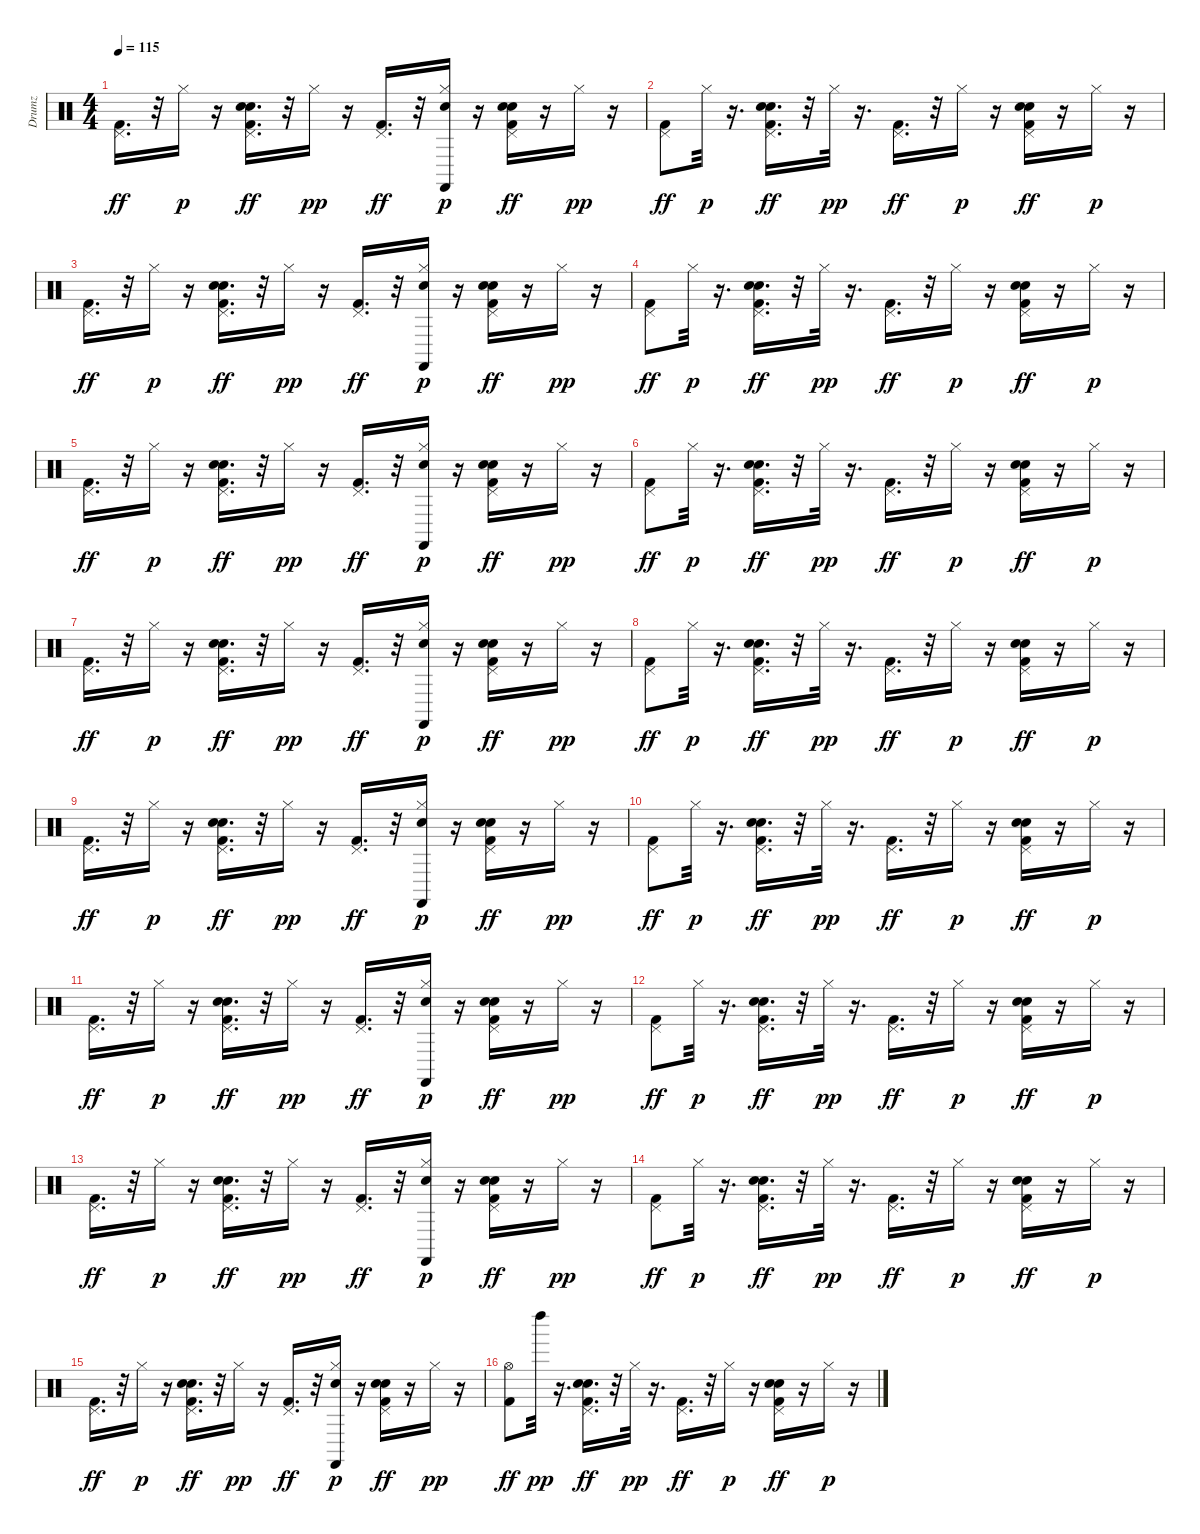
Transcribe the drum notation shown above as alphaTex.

\track ("Drumz" "Drumz") {instrument percussion}
\staff {score}
\articulation defaults
\ts (4 4)
\tempo 115
\clef neutral
\ks c
("Kick (hit) 2" "Pedal Hi-Hat (hit)").16{d dy ff} r.32 "Hi-Hat (closed)".16{dy p} r.16 ("Kick (hit) 2" "Pedal Hi-Hat (hit)" "Hand Clap (hit)" "Electric Snare (hit)").16{d dy ff} r.32 "Hi-Hat (closed)".16{dy pp} r.16 ("Pedal Hi-Hat (hit)" "Kick (hit) 2").16{d dy ff} r.32 ("Hi-Hat (closed)" "Castanets (hit)" "Hand Clap (hit)").16{dy p} r.16 ("Pedal Hi-Hat (hit)" "Kick (hit) 2" "Hand Clap (hit)" "Electric Snare (hit)").16{dy ff} r.16 "Hi-Hat (closed)".16{dy pp} r.16 |
("Pedal Hi-Hat (hit)" "Kick (hit) 2").8{dy ff} "Hi-Hat (closed)".32{dy p} r.16{d} ("Pedal Hi-Hat (hit)" "Kick (hit) 2" "Hand Clap (hit)" "Electric Snare (hit)").16{d dy ff} r.32 "Hi-Hat (closed)".32{dy pp} r.16{d} ("Pedal Hi-Hat (hit)" "Kick (hit) 2").16{d dy ff} r.32 "Hi-Hat (closed)".16{dy p} r.16 ("Pedal Hi-Hat (hit)" "Kick (hit) 2" "Electric Snare (hit)" "Hand Clap (hit)").16{dy ff} r.16 "Hi-Hat (closed)".16{dy p} r.16 |
("Kick (hit) 2" "Pedal Hi-Hat (hit)").16{d dy ff} r.32 "Hi-Hat (closed)".16{dy p} r.16 ("Kick (hit) 2" "Pedal Hi-Hat (hit)" "Hand Clap (hit)" "Electric Snare (hit)").16{d dy ff} r.32 "Hi-Hat (closed)".16{dy pp} r.16 ("Pedal Hi-Hat (hit)" "Kick (hit) 2").16{d dy ff} r.32 ("Hi-Hat (closed)" "Castanets (hit)" "Hand Clap (hit)").16{dy p} r.16 ("Pedal Hi-Hat (hit)" "Kick (hit) 2" "Hand Clap (hit)" "Electric Snare (hit)").16{dy ff} r.16 "Hi-Hat (closed)".16{dy pp} r.16 |
("Pedal Hi-Hat (hit)" "Kick (hit) 2").8{dy ff} "Hi-Hat (closed)".32{dy p} r.16{d} ("Pedal Hi-Hat (hit)" "Kick (hit) 2" "Hand Clap (hit)" "Electric Snare (hit)").16{d dy ff} r.32 "Hi-Hat (closed)".32{dy pp} r.16{d} ("Pedal Hi-Hat (hit)" "Kick (hit) 2").16{d dy ff} r.32 "Hi-Hat (closed)".16{dy p} r.16 ("Pedal Hi-Hat (hit)" "Kick (hit) 2" "Electric Snare (hit)" "Hand Clap (hit)").16{dy ff} r.16 "Hi-Hat (closed)".16{dy p} r.16 |
("Kick (hit) 2" "Pedal Hi-Hat (hit)").16{d dy ff} r.32 "Hi-Hat (closed)".16{dy p} r.16 ("Kick (hit) 2" "Pedal Hi-Hat (hit)" "Hand Clap (hit)" "Electric Snare (hit)").16{d dy ff} r.32 "Hi-Hat (closed)".16{dy pp} r.16 ("Pedal Hi-Hat (hit)" "Kick (hit) 2").16{d dy ff} r.32 ("Hi-Hat (closed)" "Castanets (hit)" "Hand Clap (hit)").16{dy p} r.16 ("Pedal Hi-Hat (hit)" "Kick (hit) 2" "Hand Clap (hit)" "Electric Snare (hit)").16{dy ff} r.16 "Hi-Hat (closed)".16{dy pp} r.16 |
("Pedal Hi-Hat (hit)" "Kick (hit) 2").8{dy ff} "Hi-Hat (closed)".32{dy p} r.16{d} ("Pedal Hi-Hat (hit)" "Kick (hit) 2" "Hand Clap (hit)" "Electric Snare (hit)").16{d dy ff} r.32 "Hi-Hat (closed)".32{dy pp} r.16{d} ("Pedal Hi-Hat (hit)" "Kick (hit) 2").16{d dy ff} r.32 "Hi-Hat (closed)".16{dy p} r.16 ("Pedal Hi-Hat (hit)" "Kick (hit) 2" "Electric Snare (hit)" "Hand Clap (hit)").16{dy ff} r.16 "Hi-Hat (closed)".16{dy p} r.16 |
("Kick (hit) 2" "Pedal Hi-Hat (hit)").16{d dy ff} r.32 "Hi-Hat (closed)".16{dy p} r.16 ("Kick (hit) 2" "Pedal Hi-Hat (hit)" "Hand Clap (hit)" "Electric Snare (hit)").16{d dy ff} r.32 "Hi-Hat (closed)".16{dy pp} r.16 ("Pedal Hi-Hat (hit)" "Kick (hit) 2").16{d dy ff} r.32 ("Hi-Hat (closed)" "Castanets (hit)" "Hand Clap (hit)").16{dy p} r.16 ("Pedal Hi-Hat (hit)" "Kick (hit) 2" "Hand Clap (hit)" "Electric Snare (hit)").16{dy ff} r.16 "Hi-Hat (closed)".16{dy pp} r.16 |
("Pedal Hi-Hat (hit)" "Kick (hit) 2").8{dy ff} "Hi-Hat (closed)".32{dy p} r.16{d} ("Pedal Hi-Hat (hit)" "Kick (hit) 2" "Hand Clap (hit)" "Electric Snare (hit)").16{d dy ff} r.32 "Hi-Hat (closed)".32{dy pp} r.16{d} ("Pedal Hi-Hat (hit)" "Kick (hit) 2").16{d dy ff} r.32 "Hi-Hat (closed)".16{dy p} r.16 ("Pedal Hi-Hat (hit)" "Kick (hit) 2" "Electric Snare (hit)" "Hand Clap (hit)").16{dy ff} r.16 "Hi-Hat (closed)".16{dy p} r.16 |
("Kick (hit) 2" "Pedal Hi-Hat (hit)").16{d dy ff} r.32 "Hi-Hat (closed)".16{dy p} r.16 ("Kick (hit) 2" "Pedal Hi-Hat (hit)" "Hand Clap (hit)" "Electric Snare (hit)").16{d dy ff} r.32 "Hi-Hat (closed)".16{dy pp} r.16 ("Pedal Hi-Hat (hit)" "Kick (hit) 2").16{d dy ff} r.32 ("Hi-Hat (closed)" "Castanets (hit)" "Hand Clap (hit)").16{dy p} r.16 ("Pedal Hi-Hat (hit)" "Kick (hit) 2" "Hand Clap (hit)" "Electric Snare (hit)").16{dy ff} r.16 "Hi-Hat (closed)".16{dy pp} r.16 |
("Pedal Hi-Hat (hit)" "Kick (hit) 2").8{dy ff} "Hi-Hat (closed)".32{dy p} r.16{d} ("Pedal Hi-Hat (hit)" "Kick (hit) 2" "Hand Clap (hit)" "Electric Snare (hit)").16{d dy ff} r.32 "Hi-Hat (closed)".32{dy pp} r.16{d} ("Pedal Hi-Hat (hit)" "Kick (hit) 2").16{d dy ff} r.32 "Hi-Hat (closed)".16{dy p} r.16 ("Pedal Hi-Hat (hit)" "Kick (hit) 2" "Electric Snare (hit)" "Hand Clap (hit)").16{dy ff} r.16 "Hi-Hat (closed)".16{dy p} r.16 |
("Kick (hit) 2" "Pedal Hi-Hat (hit)").16{d dy ff} r.32 "Hi-Hat (closed)".16{dy p} r.16 ("Kick (hit) 2" "Pedal Hi-Hat (hit)" "Hand Clap (hit)" "Electric Snare (hit)").16{d dy ff} r.32 "Hi-Hat (closed)".16{dy pp} r.16 ("Pedal Hi-Hat (hit)" "Kick (hit) 2").16{d dy ff} r.32 ("Hi-Hat (closed)" "Castanets (hit)" "Hand Clap (hit)").16{dy p} r.16 ("Pedal Hi-Hat (hit)" "Kick (hit) 2" "Hand Clap (hit)" "Electric Snare (hit)").16{dy ff} r.16 "Hi-Hat (closed)".16{dy pp} r.16 |
("Pedal Hi-Hat (hit)" "Kick (hit) 2").8{dy ff} "Hi-Hat (closed)".32{dy p} r.16{d} ("Pedal Hi-Hat (hit)" "Kick (hit) 2" "Hand Clap (hit)" "Electric Snare (hit)").16{d dy ff} r.32 "Hi-Hat (closed)".32{dy pp} r.16{d} ("Pedal Hi-Hat (hit)" "Kick (hit) 2").16{d dy ff} r.32 "Hi-Hat (closed)".16{dy p} r.16 ("Pedal Hi-Hat (hit)" "Kick (hit) 2" "Electric Snare (hit)" "Hand Clap (hit)").16{dy ff} r.16 "Hi-Hat (closed)".16{dy p} r.16 |
("Kick (hit) 2" "Pedal Hi-Hat (hit)").16{d dy ff} r.32 "Hi-Hat (closed)".16{dy p} r.16 ("Kick (hit) 2" "Pedal Hi-Hat (hit)" "Hand Clap (hit)" "Electric Snare (hit)").16{d dy ff} r.32 "Hi-Hat (closed)".16{dy pp} r.16 ("Pedal Hi-Hat (hit)" "Kick (hit) 2").16{d dy ff} r.32 ("Hi-Hat (closed)" "Castanets (hit)" "Hand Clap (hit)").16{dy p} r.16 ("Pedal Hi-Hat (hit)" "Kick (hit) 2" "Hand Clap (hit)" "Electric Snare (hit)").16{dy ff} r.16 "Hi-Hat (closed)".16{dy pp} r.16 |
("Pedal Hi-Hat (hit)" "Kick (hit) 2").8{dy ff} "Hi-Hat (closed)".32{dy p} r.16{d} ("Pedal Hi-Hat (hit)" "Kick (hit) 2" "Hand Clap (hit)" "Electric Snare (hit)").16{d dy ff} r.32 "Hi-Hat (closed)".32{dy pp} r.16{d} ("Pedal Hi-Hat (hit)" "Kick (hit) 2").16{d dy ff} r.32 "Hi-Hat (closed)".16{dy p} r.16 ("Pedal Hi-Hat (hit)" "Kick (hit) 2" "Electric Snare (hit)" "Hand Clap (hit)").16{dy ff} r.16 "Hi-Hat (closed)".16{dy p} r.16 |
("Kick (hit) 2" "Pedal Hi-Hat (hit)").16{d dy ff} r.32 "Hi-Hat (closed)".16{dy p} r.16 ("Kick (hit) 2" "Pedal Hi-Hat (hit)" "Hand Clap (hit)" "Electric Snare (hit)").16{d dy ff} r.32 "Hi-Hat (closed)".16{dy pp} r.16 ("Pedal Hi-Hat (hit)" "Kick (hit) 2").16{d dy ff} r.32 ("Hi-Hat (closed)" "Castanets (hit)" "Hand Clap (hit)").16{dy p} r.16 ("Pedal Hi-Hat (hit)" "Kick (hit) 2" "Hand Clap (hit)" "Electric Snare (hit)").16{dy ff} r.16 "Hi-Hat (closed)".16{dy pp} r.16 |
("Hi-Hat (open)" "Kick (hit) 2").8{dy ff} "Left Maraca (hit)".32{dy pp} r.16{d} ("Pedal Hi-Hat (hit)" "Kick (hit) 2" "Hand Clap (hit)" "Electric Snare (hit)").16{d dy ff} r.32 "Hi-Hat (closed)".32{dy pp} r.16{d} ("Pedal Hi-Hat (hit)" "Kick (hit) 2").16{d dy ff} r.32 "Hi-Hat (closed)".16{dy p} r.16 ("Pedal Hi-Hat (hit)" "Kick (hit) 2" "Electric Snare (hit)" "Hand Clap (hit)").16{dy ff} r.16 "Hi-Hat (closed)".16{dy p} r.16
